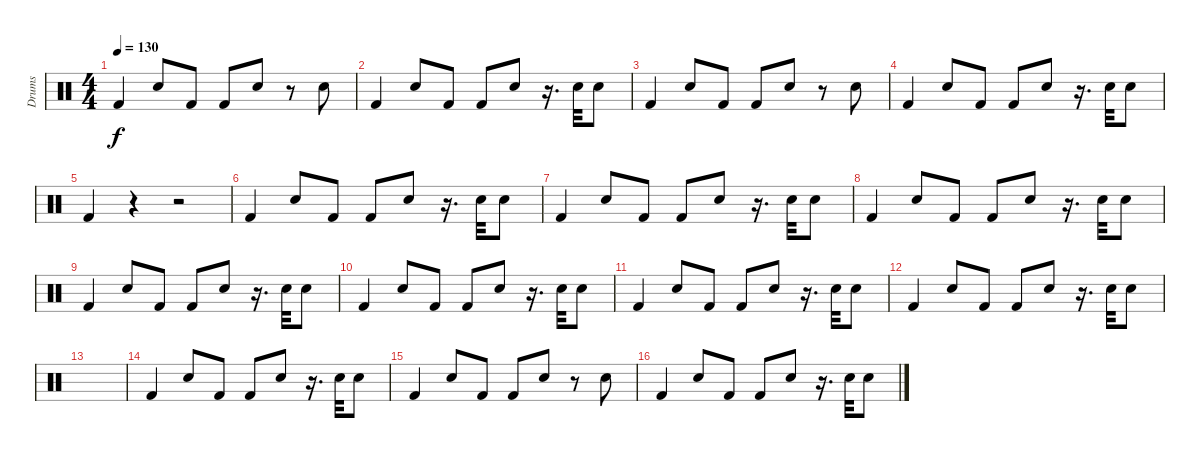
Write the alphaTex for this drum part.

\track ("Drums" "Drums") {instrument percussion}
\staff {score}
\articulation defaults
\ts (4 4)
\tempo 130
\clef neutral
\ks c "Kick (hit) 2".4{dy f} "Snare (hit) 2".8 "Kick (hit) 2".8 "Kick (hit) 2".8 "Snare (hit) 2".8
r.8 "Snare (hit) 2".8 |
"Kick (hit) 2".4 "Snare (hit) 2".8 "Kick (hit) 2".8 "Kick (hit) 2".8 "Snare (hit) 2".8 r.16{d} "Snare (hit) 2".32 "Snare (hit) 2".8 |
"Kick (hit) 2".4 "Snare (hit) 2".8 "Kick (hit) 2".8 "Kick (hit) 2".8 "Snare (hit) 2".8 r.8 "Snare (hit) 2".8 |
"Kick (hit) 2".4 "Snare (hit) 2".8 "Kick (hit) 2".8 "Kick (hit) 2".8 "Snare (hit) 2".8 r.16{d} "Snare (hit) 2".32 "Snare (hit) 2".8 |
"Kick (hit) 2".4 r.4 r.2 |
"Kick (hit) 2".4 "Snare (hit) 2".8 "Kick (hit) 2".8 "Kick (hit) 2".8 "Snare (hit) 2".8 r.16{d} "Snare (hit) 2".32 "Snare (hit) 2".8 |
"Kick (hit) 2".4 "Snare (hit) 2".8 "Kick (hit) 2".8 "Kick (hit) 2".8 "Snare (hit) 2".8 r.16{d} "Snare (hit) 2".32 "Snare (hit) 2".8 |
"Kick (hit) 2".4 "Snare (hit) 2".8 "Kick (hit) 2".8 "Kick (hit) 2".8 "Snare (hit) 2".8 r.16{d} "Snare (hit) 2".32 "Snare (hit) 2".8 |
"Kick (hit) 2".4 "Snare (hit) 2".8 "Kick (hit) 2".8 "Kick (hit) 2".8 "Snare (hit) 2".8 r.16{d} "Snare (hit) 2".32 "Snare (hit) 2".8 |
"Kick (hit) 2".4 "Snare (hit) 2".8 "Kick (hit) 2".8 "Kick (hit) 2".8 "Snare (hit) 2".8 r.16{d} "Snare (hit) 2".32 "Snare (hit) 2".8 |
"Kick (hit) 2".4 "Snare (hit) 2".8 "Kick (hit) 2".8 "Kick (hit) 2".8 "Snare (hit) 2".8 r.16{d} "Snare (hit) 2".32 "Snare (hit) 2".8 |
"Kick (hit) 2".4 "Snare (hit) 2".8 "Kick (hit) 2".8 "Kick (hit) 2".8 "Snare (hit) 2".8 r.16{d} "Snare (hit) 2".32 "Snare (hit) 2".8 |
|
"Kick (hit) 2".4 "Snare (hit) 2".8 "Kick (hit) 2".8 "Kick (hit) 2".8 "Snare (hit) 2".8 r.16{d} "Snare (hit) 2".32 "Snare (hit) 2".8 |
"Kick (hit) 2".4 "Snare (hit) 2".8 "Kick (hit) 2".8 "Kick (hit) 2".8 "Snare (hit) 2".8 r.8 "Snare (hit) 2".8 |
"Kick (hit) 2".4 "Snare (hit) 2".8 "Kick (hit) 2".8 "Kick (hit) 2".8 "Snare (hit) 2".8 r.16{d} "Snare (hit) 2".32 "Snare (hit) 2".8
